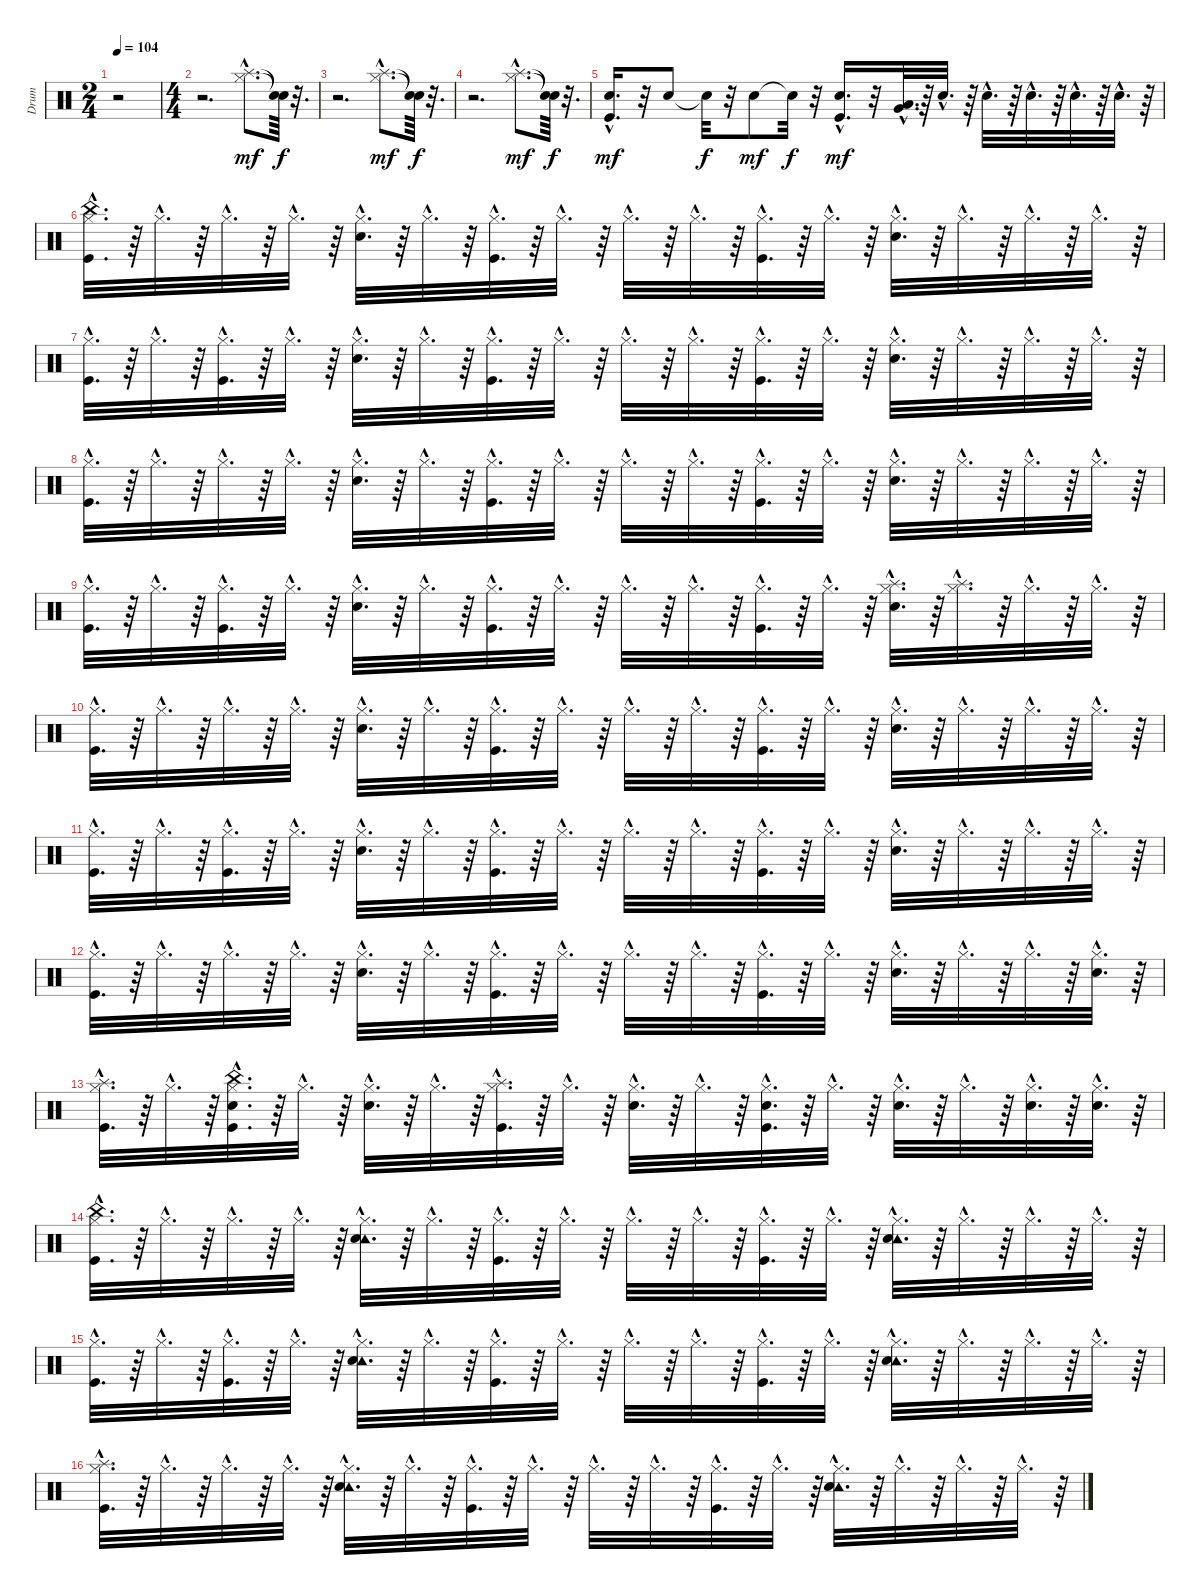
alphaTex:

\track ("Drum" "Drum") {instrument percussion}
\staff {score}
\articulation defaults
\ts (2 4)
\tempo 104
\clef neutral
\ks c
r.2{dy mf} |
\ts (4 4)
r.2{d} ("Hi-Hat (closed)"{hac} "Splash (hit)"{hac}).8{d} ("Snare (hit)"{t} "Snare (hit)"{t}).64{dy f} r.32{d} |
r.2{d} ("Hi-Hat (closed)"{hac} "Splash (hit)"{hac}).8{d dy mf} ("Snare (hit)"{t} "Snare (hit)"{t}).64{dy f} r.32{d} |
r.2{d} ("Splash (hit)"{hac} "Hi-Hat (closed)"{hac}).8{d dy mf} ("Snare (hit)"{t} "Snare (hit)"{t}).64{dy f} r.32{d} |
("Kick (hit)"{hac} "Snare (hit) 2"{hac}).16{d dy mf} r.32 "Snare (hit) 2".8 "Snare (hit)"{t}.32{dy f} r.32 "Snare (hit) 2".8{dy mf} "Snare (hit)"{t}.32{dy f} r.32 ("Kick (hit)"{hac} "Snare (hit) 2"{hac}).16{d dy mf} r.32 ("Very Low Tom (hit)"{hac} "Low Tom (hit)"{hac}).32{d} r.64 "Snare (hit) 2"{hac}.32{d} r.64 "Snare (hit) 2"{hac}.32{d} r.64 "Snare (hit) 2"{hac}.32{d} r.64 "Snare (hit) 2"{hac}.32{d} r.64 "Snare (hit) 2"{hac}.32{d} r.64 |
("Kick (hit)"{hac} "China (hit)"{hac} "Hi-Hat (closed)"{hac}).32{d} r.64 "Hi-Hat (closed)"{hac}.32{d} r.64 "Hi-Hat (closed)"{hac}.32{d} r.64 "Hi-Hat (closed)"{hac}.32{d} r.64 ("Snare (hit) 2"{hac} "Hi-Hat (closed)"{hac}).32{d} r.64 "Hi-Hat (closed)"{hac}.32{d} r.64 ("Kick (hit)"{hac} "Hi-Hat (closed)"{hac}).32{d} r.64 "Hi-Hat (closed)"{hac}.32{d} r.64 "Hi-Hat (closed)"{hac}.32{d} r.64 "Hi-Hat (closed)"{hac}.32{d} r.64 ("Kick (hit)"{hac} "Hi-Hat (closed)"{hac}).32{d} r.64 "Hi-Hat (closed)"{hac}.32{d} r.64 ("Snare (hit) 2"{hac} "Hi-Hat (closed)"{hac}).32{d} r.64 "Hi-Hat (closed)"{hac}.32{d} r.64 "Hi-Hat (closed)"{hac}.32{d} r.64 "Hi-Hat (closed)"{hac}.32{d} r.64 |
("Hi-Hat (closed)"{hac} "Kick (hit)"{hac}).32{d} r.64 "Hi-Hat (closed)"{hac}.32{d} r.64 ("Kick (hit)"{hac} "Hi-Hat (closed)"{hac}).32{d} r.64 "Hi-Hat (closed)"{hac}.32{d} r.64 ("Hi-Hat (closed)"{hac} "Snare (hit) 2"{hac}).32{d} r.64 "Hi-Hat (closed)"{hac}.32{d} r.64 ("Hi-Hat (closed)"{hac} "Kick (hit)"{hac}).32{d} r.64 "Hi-Hat (closed)"{hac}.32{d} r.64 "Hi-Hat (closed)"{hac}.32{d} r.64 "Hi-Hat (closed)"{hac}.32{d} r.64 ("Hi-Hat (closed)"{hac} "Kick (hit)"{hac}).32{d} r.64 "Hi-Hat (closed)"{hac}.32{d} r.64 ("Hi-Hat (closed)"{hac} "Snare (hit) 2"{hac}).32{d} r.64 "Hi-Hat (closed)"{hac}.32{d} r.64 "Hi-Hat (closed)"{hac}.32{d} r.64 "Hi-Hat (closed)"{hac}.32{d} r.64 |
("Hi-Hat (closed)"{hac} "Kick (hit)"{hac}).32{d} r.64 "Hi-Hat (closed)"{hac}.32{d} r.64 "Hi-Hat (closed)"{hac}.32{d} r.64 "Hi-Hat (closed)"{hac}.32{d} r.64 ("Hi-Hat (closed)"{hac} "Snare (hit) 2"{hac}).32{d} r.64 "Hi-Hat (closed)"{hac}.32{d} r.64 ("Hi-Hat (closed)"{hac} "Kick (hit)"{hac}).32{d} r.64 "Hi-Hat (closed)"{hac}.32{d} r.64 "Hi-Hat (closed)"{hac}.32{d} r.64 "Hi-Hat (closed)"{hac}.32{d} r.64 ("Hi-Hat (closed)"{hac} "Kick (hit)"{hac}).32{d} r.64 "Hi-Hat (closed)"{hac}.32{d} r.64 ("Hi-Hat (closed)"{hac} "Snare (hit) 2"{hac}).32{d} r.64 "Hi-Hat (closed)"{hac}.32{d} r.64 "Hi-Hat (closed)"{hac}.32{d} r.64 "Hi-Hat (closed)"{hac}.32{d} r.64 |
("Kick (hit)"{hac} "Hi-Hat (closed)"{hac}).32{d} r.64 "Hi-Hat (closed)"{hac}.32{d} r.64 ("Hi-Hat (closed)"{hac} "Kick (hit)"{hac}).32{d} r.64 "Hi-Hat (closed)"{hac}.32{d} r.64 ("Snare (hit) 2"{hac} "Hi-Hat (closed)"{hac}).32{d} r.64 "Hi-Hat (closed)"{hac}.32{d} r.64 ("Kick (hit)"{hac} "Hi-Hat (closed)"{hac}).32{d} r.64 "Hi-Hat (closed)"{hac}.32{d} r.64 "Hi-Hat (closed)"{hac}.32{d} r.64 "Hi-Hat (closed)"{hac}.32{d} r.64 ("Kick (hit)"{hac} "Hi-Hat (closed)"{hac}).32{d} r.64 "Hi-Hat (closed)"{hac}.32{d} r.64 ("Splash (hit)"{hac} "Snare (hit) 2"{hac} "Hi-Hat (closed)"{hac}).32{d} r.64 ("Splash (hit)"{hac} "Hi-Hat (closed)"{hac}).32{d} r.64 "Hi-Hat (closed)"{hac}.32{d} r.64 "Hi-Hat (closed)"{hac}.32{d} r.64 |
("Hi-Hat (closed)"{hac} "Kick (hit)"{hac}).32{d} r.64 "Hi-Hat (closed)"{hac}.32{d} r.64 "Hi-Hat (closed)"{hac}.32{d} r.64 "Hi-Hat (closed)"{hac}.32{d} r.64 ("Hi-Hat (closed)"{hac} "Snare (hit) 2"{hac}).32{d} r.64 "Hi-Hat (closed)"{hac}.32{d} r.64 ("Hi-Hat (closed)"{hac} "Kick (hit)"{hac}).32{d} r.64 "Hi-Hat (closed)"{hac}.32{d} r.64 "Hi-Hat (closed)"{hac}.32{d} r.64 "Hi-Hat (closed)"{hac}.32{d} r.64 ("Hi-Hat (closed)"{hac} "Kick (hit)"{hac}).32{d} r.64 "Hi-Hat (closed)"{hac}.32{d} r.64 ("Hi-Hat (closed)"{hac} "Snare (hit) 2"{hac}).32{d} r.64 "Hi-Hat (closed)"{hac}.32{d} r.64 "Hi-Hat (closed)"{hac}.32{d} r.64 "Hi-Hat (closed)"{hac}.32{d} r.64 |
("Kick (hit)"{hac} "Hi-Hat (closed)"{hac}).32{d} r.64 "Hi-Hat (closed)"{hac}.32{d} r.64 ("Hi-Hat (closed)"{hac} "Kick (hit)"{hac}).32{d} r.64 "Hi-Hat (closed)"{hac}.32{d} r.64 ("Snare (hit) 2"{hac} "Hi-Hat (closed)"{hac}).32{d} r.64 "Hi-Hat (closed)"{hac}.32{d} r.64 ("Kick (hit)"{hac} "Hi-Hat (closed)"{hac}).32{d} r.64 "Hi-Hat (closed)"{hac}.32{d} r.64 "Hi-Hat (closed)"{hac}.32{d} r.64 "Hi-Hat (closed)"{hac}.32{d} r.64 ("Kick (hit)"{hac} "Hi-Hat (closed)"{hac}).32{d} r.64 "Hi-Hat (closed)"{hac}.32{d} r.64 ("Snare (hit) 2"{hac} "Hi-Hat (closed)"{hac}).32{d} r.64 "Hi-Hat (closed)"{hac}.32{d} r.64 "Hi-Hat (closed)"{hac}.32{d} r.64 "Hi-Hat (closed)"{hac}.32{d} r.64 |
("Kick (hit)"{hac} "Hi-Hat (closed)"{hac}).32{d} r.64 "Hi-Hat (closed)"{hac}.32{d} r.64 "Hi-Hat (closed)"{hac}.32{d} r.64 "Hi-Hat (closed)"{hac}.32{d} r.64 ("Snare (hit) 2"{hac} "Hi-Hat (closed)"{hac}).32{d} r.64 "Hi-Hat (closed)"{hac}.32{d} r.64 ("Kick (hit)"{hac} "Hi-Hat (closed)"{hac}).32{d} r.64 "Hi-Hat (closed)"{hac}.32{d} r.64 "Hi-Hat (closed)"{hac}.32{d} r.64 "Hi-Hat (closed)"{hac}.32{d} r.64 ("Kick (hit)"{hac} "Hi-Hat (closed)"{hac}).32{d} r.64 "Hi-Hat (closed)"{hac}.32{d} r.64 ("Snare (hit) 2"{hac} "Hi-Hat (closed)"{hac}).32{d} r.64 "Hi-Hat (closed)"{hac}.32{d} r.64 "Hi-Hat (closed)"{hac}.32{d} r.64 ("Snare (hit) 2"{hac} "Hi-Hat (closed)"{hac}).32{d} r.64 |
("Splash (hit)"{hac} "Hi-Hat (closed)"{hac} "Kick (hit)"{hac}).32{d} r.64 "Hi-Hat (closed)"{hac}.32{d} r.64 ("China (hit)"{hac} "Snare (hit) 2"{hac} "Kick (hit)"{hac} "Hi-Hat (closed)"{hac}).32{d} r.64 "Hi-Hat (closed)"{hac}.32{d} r.64 ("Snare (hit) 2"{hac} "Hi-Hat (closed)"{hac}).32{d} r.64 "Hi-Hat (closed)"{hac}.32{d} r.64 ("Splash (hit)"{hac} "Hi-Hat (closed)"{hac} "Kick (hit)"{hac}).32{d} r.64 "Hi-Hat (closed)"{hac}.32{d} r.64 ("Snare (hit) 2"{hac} "Hi-Hat (closed)"{hac}).32{d} r.64 "Hi-Hat (closed)"{hac}.32{d} r.64 ("Snare (hit) 2"{hac} "Hi-Hat (closed)"{hac} "Kick (hit)"{hac}).32{d} r.64 "Hi-Hat (closed)"{hac}.32{d} r.64 ("Hi-Hat (closed)"{hac} "Snare (hit) 2"{hac}).32{d} r.64 "Hi-Hat (closed)"{hac}.32{d} r.64 ("Snare (hit) 2"{hac} "Hi-Hat (closed)"{hac}).32{d} r.64 ("Snare (hit) 2"{hac} "Hi-Hat (closed)"{hac}).32{d} r.64 |
("Hi-Hat (closed)"{hac} "China (hit)"{hac} "Kick (hit)"{hac}).32{d} r.64 "Hi-Hat (closed)"{hac}.32{d} r.64 "Hi-Hat (closed)"{hac}.32{d} r.64 "Hi-Hat (closed)"{hac}.32{d} r.64 ("Tambourine (hit)"{hac} "Hi-Hat (closed)"{hac} "Snare (hit) 2"{hac}).32{d} r.64 "Hi-Hat (closed)"{hac}.32{d} r.64 ("Hi-Hat (closed)"{hac} "Kick (hit)"{hac}).32{d} r.64 "Hi-Hat (closed)"{hac}.32{d} r.64 "Hi-Hat (closed)"{hac}.32{d} r.64 "Hi-Hat (closed)"{hac}.32{d} r.64 ("Hi-Hat (closed)"{hac} "Kick (hit)"{hac}).32{d} r.64 "Hi-Hat (closed)"{hac}.32{d} r.64 ("Tambourine (hit)"{hac} "Hi-Hat (closed)"{hac} "Snare (hit) 2"{hac}).32{d} r.64 "Hi-Hat (closed)"{hac}.32{d} r.64 "Hi-Hat (closed)"{hac}.32{d} r.64 "Hi-Hat (closed)"{hac}.32{d} r.64 |
("Kick (hit)"{hac} "Hi-Hat (closed)"{hac}).32{d} r.64 "Hi-Hat (closed)"{hac}.32{d} r.64 ("Hi-Hat (closed)"{hac} "Kick (hit)"{hac}).32{d} r.64 "Hi-Hat (closed)"{hac}.32{d} r.64 ("Tambourine (hit)"{hac} "Snare (hit) 2"{hac} "Hi-Hat (closed)"{hac}).32{d} r.64 "Hi-Hat (closed)"{hac}.32{d} r.64 ("Kick (hit)"{hac} "Hi-Hat (closed)"{hac}).32{d} r.64 "Hi-Hat (closed)"{hac}.32{d} r.64 "Hi-Hat (closed)"{hac}.32{d} r.64 "Hi-Hat (closed)"{hac}.32{d} r.64 ("Kick (hit)"{hac} "Hi-Hat (closed)"{hac}).32{d} r.64 "Hi-Hat (closed)"{hac}.32{d} r.64 ("Tambourine (hit)"{hac} "Snare (hit) 2"{hac} "Hi-Hat (closed)"{hac}).32{d} r.64 "Hi-Hat (closed)"{hac}.32{d} r.64 "Hi-Hat (closed)"{hac}.32{d} r.64 "Hi-Hat (closed)"{hac}.32{d} r.64 |
("Splash (hit)"{hac} "Kick (hit)"{hac} "Hi-Hat (closed)"{hac}).32{d} r.64 "Hi-Hat (closed)"{hac}.32{d} r.64 "Hi-Hat (closed)"{hac}.32{d} r.64 "Hi-Hat (closed)"{hac}.32{d} r.64 ("Tambourine (hit)"{hac} "Snare (hit) 2"{hac} "Hi-Hat (closed)"{hac}).32{d} r.64 "Hi-Hat (closed)"{hac}.32{d} r.64 ("Kick (hit)"{hac} "Hi-Hat (closed)"{hac}).32{d} r.64 "Hi-Hat (closed)"{hac}.32{d} r.64 "Hi-Hat (closed)"{hac}.32{d} r.64 "Hi-Hat (closed)"{hac}.32{d} r.64 ("Kick (hit)"{hac} "Hi-Hat (closed)"{hac}).32{d} r.64 "Hi-Hat (closed)"{hac}.32{d} r.64 ("Tambourine (hit)"{hac} "Snare (hit) 2"{hac} "Hi-Hat (closed)"{hac}).32{d} r.64 "Hi-Hat (closed)"{hac}.32{d} r.64 "Hi-Hat (closed)"{hac}.32{d} r.64 "Hi-Hat (closed)"{hac}.32{d} r.64
